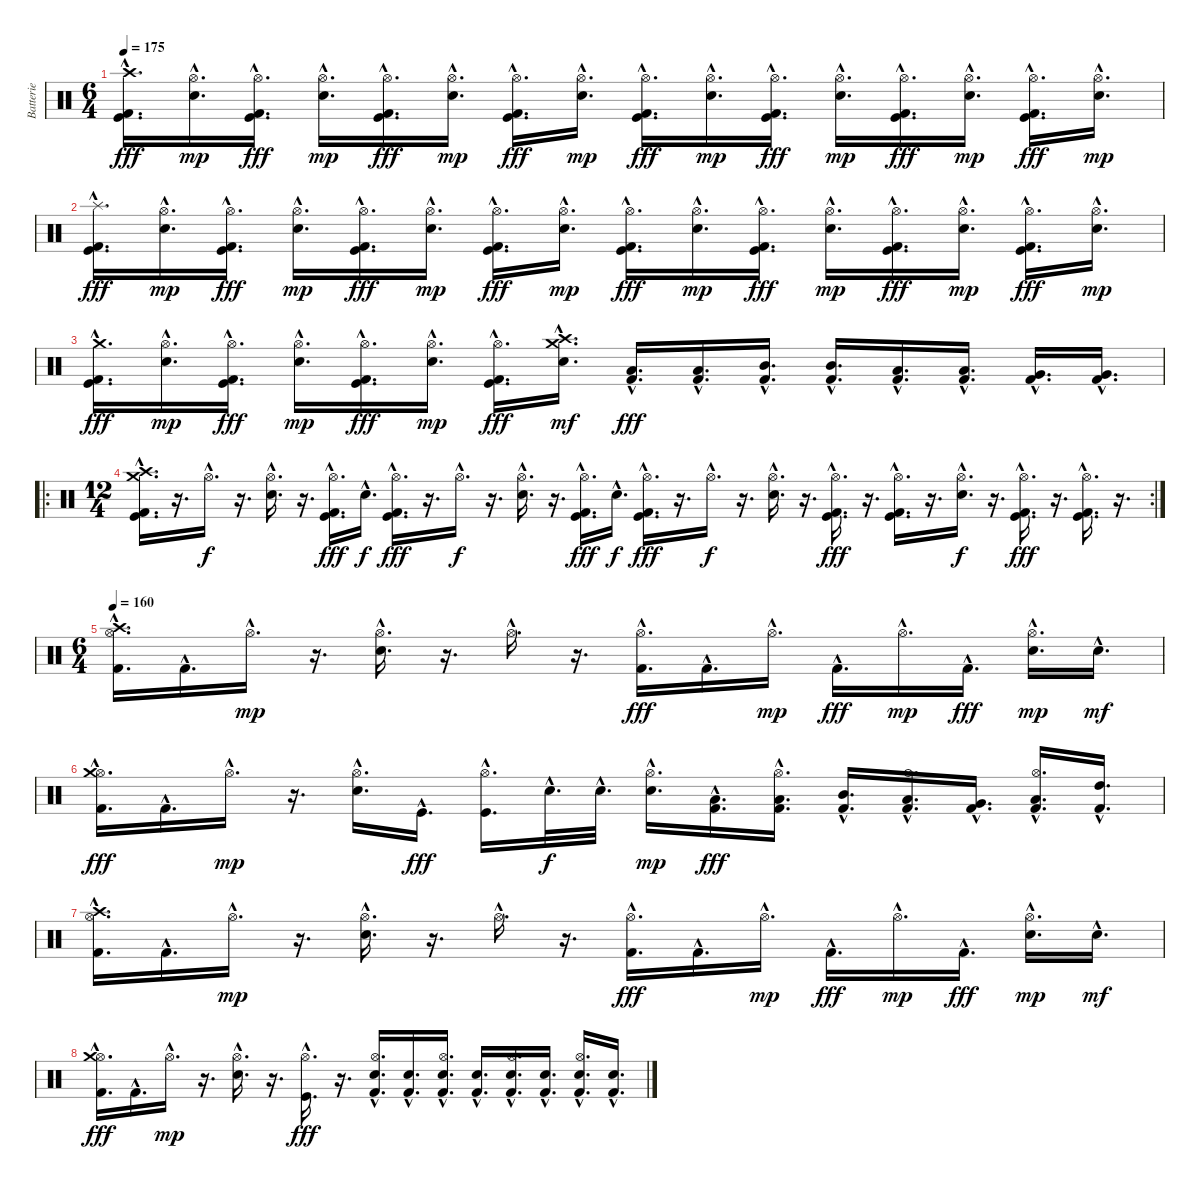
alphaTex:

\track ("Batterie" "Batterie") {instrument percussion}
\staff {score}
\articulation defaults
\ts (6 4)
\tempo 175
\clef neutral
\ks c
("Crash high (hit)"{hac} "Kick (hit) 2"{hac} "Kick (hit)"{hac}).16{d dy fff} ("Hi-Hat (open)"{hac} "Electric Snare (hit)"{hac}).16{d dy mp} ("Hi-Hat (open)"{hac} "Kick (hit) 2"{hac} "Kick (hit)"{hac}).16{d dy fff} ("Hi-Hat (open)"{hac} "Electric Snare (hit)"{hac}).16{d dy mp} ("Hi-Hat (open)"{hac} "Kick (hit) 2"{hac} "Kick (hit)"{hac}).16{d dy fff} ("Hi-Hat (open)"{hac} "Electric Snare (hit)"{hac}).16{d dy mp} ("Hi-Hat (open)"{hac} "Kick (hit) 2"{hac} "Kick (hit)"{hac}).16{d dy fff} ("Hi-Hat (open)"{hac} "Electric Snare (hit)"{hac}).16{d dy mp} ("Hi-Hat (open)"{hac} "Kick (hit) 2"{hac} "Kick (hit)"{hac}).16{d dy fff} ("Hi-Hat (open)"{hac} "Electric Snare (hit)"{hac}).16{d dy mp} ("Hi-Hat (open)"{hac} "Kick (hit) 2"{hac} "Kick (hit)"{hac}).16{d dy fff} ("Hi-Hat (open)"{hac} "Electric Snare (hit)"{hac}).16{d dy mp} ("Hi-Hat (open)"{hac} "Kick (hit) 2"{hac} "Kick (hit)"{hac}).16{d dy fff} ("Hi-Hat (open)"{hac} "Electric Snare (hit)"{hac}).16{d dy mp} ("Hi-Hat (open)"{hac} "Kick (hit) 2"{hac} "Kick (hit)"{hac}).16{d dy fff} ("Hi-Hat (open)"{hac} "Electric Snare (hit)"{hac}).16{d dy mp} |
("Splash (hit)"{hac} "Kick (hit) 2"{hac} "Kick (hit)"{hac}).16{d dy fff} ("Hi-Hat (open)"{hac} "Electric Snare (hit)"{hac}).16{d dy mp} ("Hi-Hat (open)"{hac} "Kick (hit) 2"{hac} "Kick (hit)"{hac}).16{d dy fff} ("Hi-Hat (open)"{hac} "Electric Snare (hit)"{hac}).16{d dy mp} ("Hi-Hat (open)"{hac} "Kick (hit) 2"{hac} "Kick (hit)"{hac}).16{d dy fff} ("Hi-Hat (open)"{hac} "Electric Snare (hit)"{hac}).16{d dy mp} ("Hi-Hat (open)"{hac} "Kick (hit) 2"{hac} "Kick (hit)"{hac}).16{d dy fff} ("Hi-Hat (open)"{hac} "Electric Snare (hit)"{hac}).16{d dy mp} ("Hi-Hat (open)"{hac} "Kick (hit) 2"{hac} "Kick (hit)"{hac}).16{d dy fff} ("Hi-Hat (open)"{hac} "Electric Snare (hit)"{hac}).16{d dy mp} ("Hi-Hat (open)"{hac} "Kick (hit) 2"{hac} "Kick (hit)"{hac}).16{d dy fff} ("Hi-Hat (open)"{hac} "Electric Snare (hit)"{hac}).16{d dy mp} ("Hi-Hat (open)"{hac} "Kick (hit) 2"{hac} "Kick (hit)"{hac}).16{d dy fff} ("Hi-Hat (open)"{hac} "Electric Snare (hit)"{hac}).16{d dy mp} ("Hi-Hat (open)"{hac} "Kick (hit) 2"{hac} "Kick (hit)"{hac}).16{d dy fff} ("Hi-Hat (open)"{hac} "Electric Snare (hit)"{hac}).16{d dy mp} |
("Crash medium (hit)"{hac} "Kick (hit) 2"{hac} "Kick (hit)"{hac}).16{d dy fff} ("Hi-Hat (open)"{hac} "Electric Snare (hit)"{hac}).16{d dy mp} ("Hi-Hat (open)"{hac} "Kick (hit) 2"{hac} "Kick (hit)"{hac}).16{d dy fff} ("Hi-Hat (open)"{hac} "Electric Snare (hit)"{hac}).16{d dy mp} ("Hi-Hat (open)"{hac} "Kick (hit) 2"{hac} "Kick (hit)"{hac}).16{d dy fff} ("Hi-Hat (open)"{hac} "Electric Snare (hit)"{hac}).16{d dy mp} ("Hi-Hat (open)"{hac} "Kick (hit) 2"{hac} "Kick (hit)"{hac}).16{d dy fff} ("Crash medium (hit)"{hac} "Crash high (hit)"{hac} "Electric Snare (hit)"{hac}).16{d dy mf} ("Low Tom (hit)"{hac} "Kick (hit) 2"{hac}).16{d dy fff} ("Low Tom (hit)"{hac} "Kick (hit) 2"{hac}).16{d} ("Mid Tom (hit)"{hac} "Kick (hit) 2"{hac}).16{d} ("Mid Tom (hit)"{hac} "Kick (hit) 2"{hac}).16{d} ("Low Floor Tom (hit)"{hac} "Kick (hit) 2"{hac}).16{d} ("Low Floor Tom (hit)"{hac} "Kick (hit) 2"{hac}).16{d} ("Very Low Tom (hit)"{hac} "Kick (hit) 2"{hac}).16{d} ("Very Low Tom (hit)"{hac} "Kick (hit) 2"{hac}).16{d} |
\ro
\rc 2
\ts (12 4)
("Crash medium (hit)"{hac} "Crash high (hit)"{hac} "Kick (hit)"{hac} "Kick (hit) 2"{hac}).16{d} r.16{d} "Hi-Hat (open)"{hac}.16{d dy f} r.16{d} ("Hi-Hat (open)"{hac} "Electric Snare (hit)"{hac}).16{d} r.16{d} ("Hi-Hat (open)"{hac} "Kick (hit)"{hac} "Kick (hit) 2"{hac}).16{d dy fff} "Snare (hit) 2"{hac}.16{d dy f} ("Hi-Hat (open)"{hac} "Kick (hit)"{hac} "Kick (hit) 2"{hac}).16{d dy fff} r.16{d} "Hi-Hat (open)"{hac}.16{d dy f} r.16{d} ("Hi-Hat (open)"{hac} "Electric Snare (hit)"{hac}).16{d} r.16{d} ("Hi-Hat (open)"{hac} "Kick (hit)"{hac} "Kick (hit) 2"{hac}).16{d dy fff} "Snare (hit) 2"{hac}.16{d dy f} ("Hi-Hat (open)"{hac} "Kick (hit)"{hac} "Kick (hit) 2"{hac}).16{d dy fff} r.16{d} "Hi-Hat (open)"{hac}.16{d dy f} r.16{d} ("Hi-Hat (open)"{hac} "Electric Snare (hit)"{hac}).16{d} r.16{d} ("Hi-Hat (open)"{hac} "Kick (hit)"{hac} "Kick (hit) 2"{hac}).16{d dy fff} r.16{d} ("Hi-Hat (open)"{hac} "Kick (hit)"{hac} "Kick (hit) 2"{hac}).16{d} r.16{d} ("Hi-Hat (open)"{hac} "Electric Snare (hit)"{hac}).16{d dy f} r.16{d} ("Hi-Hat (open)"{hac} "Kick (hit)"{hac} "Kick (hit) 2"{hac}).16{d dy fff} r.16{d} ("Hi-Hat (open)"{hac} "Kick (hit)"{hac} "Kick (hit) 2"{hac}).16{d} r.16{d} |
\ts (6 4)
\tempo 160
("Hi-Hat (open)"{hac} "Crash high (hit)"{hac} "Kick (hit) 2"{hac}).16{d} "Kick (hit) 2"{hac}.16{d} "Hi-Hat (open)"{hac}.16{d dy mp} r.16{d} ("Hi-Hat (open)"{hac} "Electric Snare (hit)"{hac}).16{d} r.16{d} "Hi-Hat (open)"{hac}.16{d} r.16{d} ("Hi-Hat (open)"{hac} "Kick (hit) 2"{hac}).16{d dy fff} "Kick (hit) 2"{hac}.16{d} "Hi-Hat (open)"{hac}.16{d dy mp} "Kick (hit) 2"{hac}.16{d dy fff} "Hi-Hat (open)"{hac}.16{d dy mp} "Kick (hit) 2"{hac}.16{d dy fff} ("Hi-Hat (open)"{hac} "Electric Snare (hit)"{hac}).16{d dy mp} "Electric Snare (hit)"{hac}.16{d dy mf} |
("Hi-Hat (open)"{hac} "Crash medium (hit)"{hac} "Kick (hit) 2"{hac}).16{d dy fff} "Kick (hit) 2"{hac}.16{d} "Hi-Hat (open)"{hac}.16{d dy mp} r.16{d} ("Hi-Hat (open)"{hac} "Electric Snare (hit)"{hac}).16{d} "Kick (hit)"{hac}.16{d dy fff} ("Hi-Hat (open)"{hac} "Kick (hit)"{hac}).16{d} "Electric Snare (hit)"{hac}.32{d dy f} "Electric Snare (hit)"{hac}.32{d} ("Hi-Hat (open)"{hac} "Electric Snare (hit)"{hac}).16{d dy mp} ("Low Floor Tom (hit)"{hac} "Kick (hit) 2"{hac}).16{d dy fff} ("Hi-Hat (open)"{hac} "Low Tom (hit)"{hac} "Kick (hit) 2"{hac}).16{d} ("Mid Tom (hit)"{hac} "Kick (hit) 2"{hac}).16{d} ("Hi-Hat (open)"{hac} "Low Tom (hit)"{hac} "Kick (hit) 2"{hac}).16{d} ("Very Low Tom (hit)"{hac} "Kick (hit) 2"{hac}).16{d} ("Hi-Hat (open)"{hac} "Low Floor Tom (hit)"{hac} "Kick (hit) 2"{hac}).16{d} ("High Tom (hit)"{hac} "Kick (hit) 2"{hac}).16{d} |
("Hi-Hat (open)"{hac} "Crash high (hit)"{hac} "Kick (hit) 2"{hac}).16{d} "Kick (hit) 2"{hac}.16{d} "Hi-Hat (open)"{hac}.16{d dy mp} r.16{d} ("Hi-Hat (open)"{hac} "Electric Snare (hit)"{hac}).16{d} r.16{d} "Hi-Hat (open)"{hac}.16{d} r.16{d} ("Hi-Hat (open)"{hac} "Kick (hit) 2"{hac}).16{d dy fff} "Kick (hit) 2"{hac}.16{d} "Hi-Hat (open)"{hac}.16{d dy mp} "Kick (hit) 2"{hac}.16{d dy fff} "Hi-Hat (open)"{hac}.16{d dy mp} "Kick (hit) 2"{hac}.16{d dy fff} ("Hi-Hat (open)"{hac} "Electric Snare (hit)"{hac}).16{d dy mp} "Electric Snare (hit)"{hac}.16{d dy mf} |
("Hi-Hat (open)"{hac} "Crash medium (hit)"{hac} "Kick (hit) 2"{hac}).16{d dy fff} "Kick (hit) 2"{hac}.16{d} "Hi-Hat (open)"{hac}.16{d dy mp} r.16{d} ("Hi-Hat (open)"{hac} "Electric Snare (hit)"{hac}).16{d} r.16{d} ("Hi-Hat (open)"{hac} "Kick (hit)"{hac}).16{d dy fff} r.16{d} ("Hi-Hat (open)"{hac} "Electric Snare (hit)"{hac} "Kick (hit) 2"{hac}).16{d} ("Electric Snare (hit)"{hac} "Kick (hit) 2"{hac}).16{d} ("Hi-Hat (open)"{hac} "Electric Snare (hit)"{hac} "Kick (hit) 2"{hac}).16{d} ("Electric Snare (hit)"{hac} "Kick (hit) 2"{hac}).16{d} ("Hi-Hat (open)"{hac} "Electric Snare (hit)"{hac} "Kick (hit) 2"{hac}).16{d} ("Electric Snare (hit)"{hac} "Kick (hit) 2"{hac}).16{d} ("Hi-Hat (open)"{hac} "Electric Snare (hit)"{hac} "Kick (hit) 2"{hac}).16{d} ("Electric Snare (hit)"{hac} "Kick (hit) 2"{hac}).16{d}
